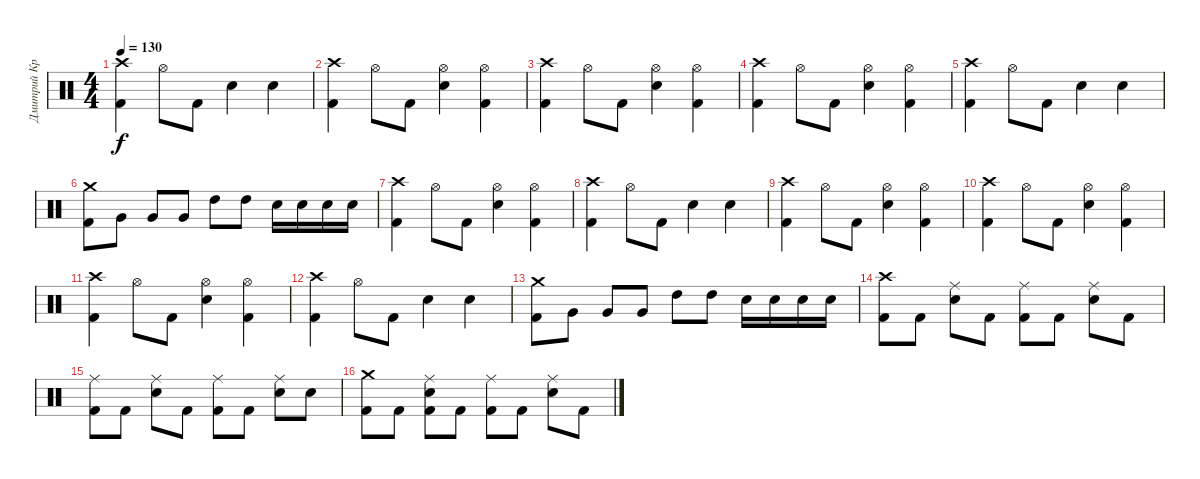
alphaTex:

\track ("Дмитрий Кривенков" "Дмитрий Кр") {instrument percussion}
\staff {score}
\articulation defaults
\ts (4 4)
\tempo 130
\clef neutral
\ks c
("Crash high (hit)" "Kick (hit) 2").4{dy f} "Hi-Hat (open)".8 "Kick (hit) 2".8 "Electric Snare (hit)".4 "Electric Snare (hit)".4 |
("Crash high (hit)" "Kick (hit) 2").4 "Hi-Hat (open)".8 "Kick (hit) 2".8 ("Hi-Hat (open)" "Electric Snare (hit)").4 ("Kick (hit) 2" "Hi-Hat (open)").4 |
("Crash high (hit)" "Kick (hit) 2").4 "Hi-Hat (open)".8 "Kick (hit) 2".8 ("Hi-Hat (open)" "Electric Snare (hit)").4 ("Kick (hit) 2" "Hi-Hat (open)").4 |
("Crash high (hit)" "Kick (hit) 2").4 "Hi-Hat (open)".8 "Kick (hit) 2".8 ("Hi-Hat (open)" "Electric Snare (hit)").4 ("Kick (hit) 2" "Hi-Hat (open)").4 |
("Crash high (hit)" "Kick (hit) 2").4 "Hi-Hat (open)".8 "Kick (hit) 2".8 "Electric Snare (hit)".4 "Electric Snare (hit)".4 |
("Crash medium (hit)" "Kick (hit) 2").8 "Very Low Tom (hit)".8 "Very Low Tom (hit)".8 "Very Low Tom (hit)".8 "High Tom (hit)".8 "High Tom (hit)".8 "Electric Snare (hit)".16 "Electric Snare (hit)".16 "Electric Snare (hit)".16 "Electric Snare (hit)".16 |
("Crash high (hit)" "Kick (hit) 2").4 "Hi-Hat (open)".8 "Kick (hit) 2".8 ("Hi-Hat (open)" "Electric Snare (hit)").4 ("Kick (hit) 2" "Hi-Hat (open)").4 |
("Crash high (hit)" "Kick (hit) 2").4 "Hi-Hat (open)".8 "Kick (hit) 2".8 "Electric Snare (hit)".4 "Electric Snare (hit)".4 |
("Crash high (hit)" "Kick (hit) 2").4 "Hi-Hat (open)".8 "Kick (hit) 2".8 ("Hi-Hat (open)" "Electric Snare (hit)").4 ("Kick (hit) 2" "Hi-Hat (open)").4 |
("Crash high (hit)" "Kick (hit) 2").4 "Hi-Hat (open)".8 "Kick (hit) 2".8 ("Hi-Hat (open)" "Electric Snare (hit)").4 ("Kick (hit) 2" "Hi-Hat (open)").4 |
("Crash high (hit)" "Kick (hit) 2").4 "Hi-Hat (open)".8 "Kick (hit) 2".8 ("Hi-Hat (open)" "Electric Snare (hit)").4 ("Kick (hit) 2" "Hi-Hat (open)").4 |
("Crash high (hit)" "Kick (hit) 2").4 "Hi-Hat (open)".8 "Kick (hit) 2".8 "Electric Snare (hit)".4 "Electric Snare (hit)".4 |
("Crash medium (hit)" "Kick (hit) 2").8 "Very Low Tom (hit)".8 "Very Low Tom (hit)".8 "Very Low Tom (hit)".8 "High Tom (hit)".8 "High Tom (hit)".8 "Electric Snare (hit)".16 "Electric Snare (hit)".16 "Electric Snare (hit)".16 "Electric Snare (hit)".16 |
("Crash high (hit)" "Kick (hit) 2").8 "Kick (hit) 2".8 ("Ride (middle)" "Electric Snare (hit)").8 "Kick (hit) 2".8 ("Ride (middle)" "Kick (hit) 2").8 "Kick (hit) 2".8 ("Ride (middle)" "Electric Snare (hit)").8 "Kick (hit) 2".8 |
("Kick (hit) 2" "Ride (middle)").8 "Kick (hit) 2".8 ("Ride (middle)" "Electric Snare (hit)").8 "Kick (hit) 2".8 ("Kick (hit) 2" "Ride (middle)").8 "Kick (hit) 2".8 ("Electric Snare (hit)" "Ride (middle)").8 "Electric Snare (hit)".8 |
("Crash medium (hit)" "Kick (hit) 2").8 "Kick (hit) 2".8 ("Ride (middle)" "Kick (hit) 2" "Electric Snare (hit)").8 "Kick (hit) 2".8 ("Kick (hit) 2" "Ride (middle)").8 "Kick (hit) 2".8 ("Ride (middle)" "Electric Snare (hit)").8 "Kick (hit) 2".8
